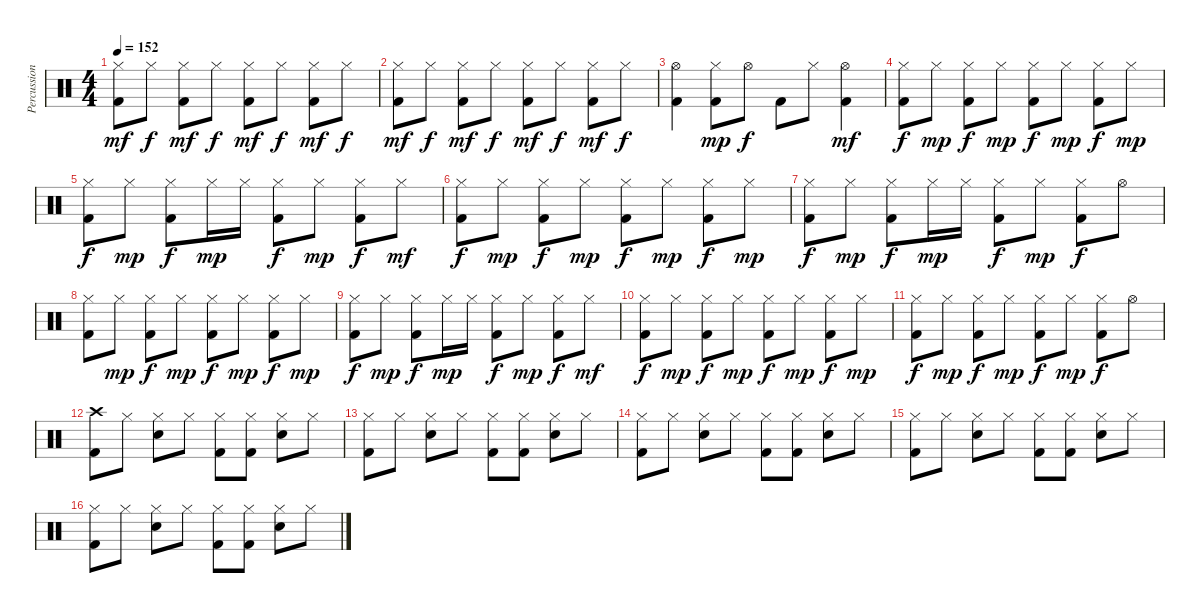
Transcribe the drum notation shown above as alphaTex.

\track ("Percussion" "Percussion") {instrument percussion}
\staff {score}
\articulation defaults
\ts (4 4)
\tempo 152
\clef neutral
\ks c
("Kick (hit) 2" "Hi-Hat (closed)").8{dy mf} "Hi-Hat (closed)".8{dy f} ("Kick (hit) 2" "Hi-Hat (closed)").8{dy mf} "Hi-Hat (closed)".8{dy f} ("Kick (hit) 2" "Hi-Hat (closed)").8{dy mf} "Hi-Hat (closed)".8{dy f} ("Kick (hit) 2" "Hi-Hat (closed)").8{dy mf} "Hi-Hat (closed)".8{dy f} |
("Kick (hit) 2" "Hi-Hat (closed)").8{dy mf} "Hi-Hat (closed)".8{dy f} ("Kick (hit) 2" "Hi-Hat (closed)").8{dy mf} "Hi-Hat (closed)".8{dy f} ("Kick (hit) 2" "Hi-Hat (closed)").8{dy mf} "Hi-Hat (closed)".8{dy f} ("Kick (hit) 2" "Hi-Hat (closed)").8{dy mf} "Hi-Hat (closed)".8{dy f} |
("Kick (hit) 2" "Hi-Hat (open)").4 ("Kick (hit) 2" "Hi-Hat (closed)").8{dy mp} "Hi-Hat (open)".8{dy f} "Kick (hit) 2".8 "Hi-Hat (closed)".8 ("Hi-Hat (open)" "Kick (hit) 2").4{dy mf} |
("Kick (hit) 2" "Hi-Hat (closed)").8{dy f} "Hi-Hat (closed)".8{dy mp} ("Kick (hit) 2" "Hi-Hat (closed)").8{dy f} "Hi-Hat (closed)".8{dy mp} ("Kick (hit) 2" "Hi-Hat (closed)").8{dy f} "Hi-Hat (closed)".8{dy mp} ("Kick (hit) 2" "Hi-Hat (closed)").8{dy f} "Hi-Hat (closed)".8{dy mp} |
("Kick (hit) 2" "Hi-Hat (closed)").8{dy f} "Hi-Hat (closed)".8{dy mp} ("Kick (hit) 2" "Hi-Hat (closed)").8{dy f} "Hi-Hat (closed)".16{dy mp} "Hi-Hat (closed)".16 ("Kick (hit) 2" "Hi-Hat (closed)").8{dy f} "Hi-Hat (closed)".8{dy mp} ("Hi-Hat (closed)" "Kick (hit) 2").8{dy f} "Hi-Hat (closed)".8{dy mf} |
("Kick (hit) 2" "Hi-Hat (closed)").8{dy f} "Hi-Hat (closed)".8{dy mp} ("Kick (hit) 2" "Hi-Hat (closed)").8{dy f} "Hi-Hat (closed)".8{dy mp} ("Kick (hit) 2" "Hi-Hat (closed)").8{dy f} "Hi-Hat (closed)".8{dy mp} ("Kick (hit) 2" "Hi-Hat (closed)").8{dy f} "Hi-Hat (closed)".8{dy mp} |
("Kick (hit) 2" "Hi-Hat (closed)").8{dy f} "Hi-Hat (closed)".8{dy mp} ("Kick (hit) 2" "Hi-Hat (closed)").8{dy f} "Hi-Hat (closed)".16{dy mp} "Hi-Hat (closed)".16 ("Kick (hit) 2" "Hi-Hat (closed)").8{dy f} "Hi-Hat (closed)".8{dy mp} ("Hi-Hat (closed)" "Kick (hit) 2").8{dy f} "Hi-Hat (open)".8 |
("Kick (hit) 2" "Hi-Hat (closed)").8 "Hi-Hat (closed)".8{dy mp} ("Kick (hit) 2" "Hi-Hat (closed)").8{dy f} "Hi-Hat (closed)".8{dy mp} ("Kick (hit) 2" "Hi-Hat (closed)").8{dy f} "Hi-Hat (closed)".8{dy mp} ("Kick (hit) 2" "Hi-Hat (closed)").8{dy f} "Hi-Hat (closed)".8{dy mp} |
("Kick (hit) 2" "Hi-Hat (closed)").8{dy f} "Hi-Hat (closed)".8{dy mp} ("Kick (hit) 2" "Hi-Hat (closed)").8{dy f} "Hi-Hat (closed)".16{dy mp} "Hi-Hat (closed)".16 ("Kick (hit) 2" "Hi-Hat (closed)").8{dy f} "Hi-Hat (closed)".8{dy mp} ("Hi-Hat (closed)" "Kick (hit) 2").8{dy f} "Hi-Hat (closed)".8{dy mf} |
("Kick (hit) 2" "Hi-Hat (closed)").8{dy f} "Hi-Hat (closed)".8{dy mp} ("Kick (hit) 2" "Hi-Hat (closed)").8{dy f} "Hi-Hat (closed)".8{dy mp} ("Kick (hit) 2" "Hi-Hat (closed)").8{dy f} "Hi-Hat (closed)".8{dy mp} ("Kick (hit) 2" "Hi-Hat (closed)").8{dy f} "Hi-Hat (closed)".8{dy mp} |
("Kick (hit) 2" "Hi-Hat (closed)").8{dy f} "Hi-Hat (closed)".8{dy mp} ("Kick (hit) 2" "Hi-Hat (closed)").8{dy f} "Hi-Hat (closed)".8{dy mp} ("Kick (hit) 2" "Hi-Hat (closed)").8{dy f} "Hi-Hat (closed)".8{dy mp} ("Kick (hit) 2" "Hi-Hat (closed)").8{dy f} "Hi-Hat (open)".8 |
("Kick (hit) 2" "Crash high (hit)").8 "Hi-Hat (closed)".8 ("Electric Snare (hit)" "Hi-Hat (closed)").8 "Hi-Hat (closed)".8 ("Kick (hit) 2" "Hi-Hat (closed)").8 ("Kick (hit) 2" "Hi-Hat (closed)").8 ("Electric Snare (hit)" "Hi-Hat (closed)").8 "Hi-Hat (closed)".8 |
("Kick (hit) 2" "Hi-Hat (closed)").8 "Hi-Hat (closed)".8 ("Electric Snare (hit)" "Hi-Hat (closed)").8 "Hi-Hat (closed)".8 ("Kick (hit) 2" "Hi-Hat (closed)").8 ("Kick (hit) 2" "Hi-Hat (closed)").8 ("Electric Snare (hit)" "Hi-Hat (closed)").8 "Hi-Hat (closed)".8 |
("Kick (hit) 2" "Hi-Hat (closed)").8 "Hi-Hat (closed)".8 ("Electric Snare (hit)" "Hi-Hat (closed)").8 "Hi-Hat (closed)".8 ("Kick (hit) 2" "Hi-Hat (closed)").8 ("Kick (hit) 2" "Hi-Hat (closed)").8 ("Electric Snare (hit)" "Hi-Hat (closed)").8 "Hi-Hat (closed)".8 |
("Kick (hit) 2" "Hi-Hat (closed)").8 "Hi-Hat (closed)".8 ("Electric Snare (hit)" "Hi-Hat (closed)").8 "Hi-Hat (closed)".8 ("Kick (hit) 2" "Hi-Hat (closed)").8 ("Kick (hit) 2" "Hi-Hat (closed)").8 ("Electric Snare (hit)" "Hi-Hat (closed)").8 "Hi-Hat (closed)".8 |
("Kick (hit) 2" "Hi-Hat (closed)").8 "Hi-Hat (closed)".8 ("Electric Snare (hit)" "Hi-Hat (closed)").8 "Hi-Hat (closed)".8 ("Kick (hit) 2" "Hi-Hat (closed)").8 ("Kick (hit) 2" "Hi-Hat (closed)").8 ("Electric Snare (hit)" "Hi-Hat (closed)").8 "Hi-Hat (closed)".8
